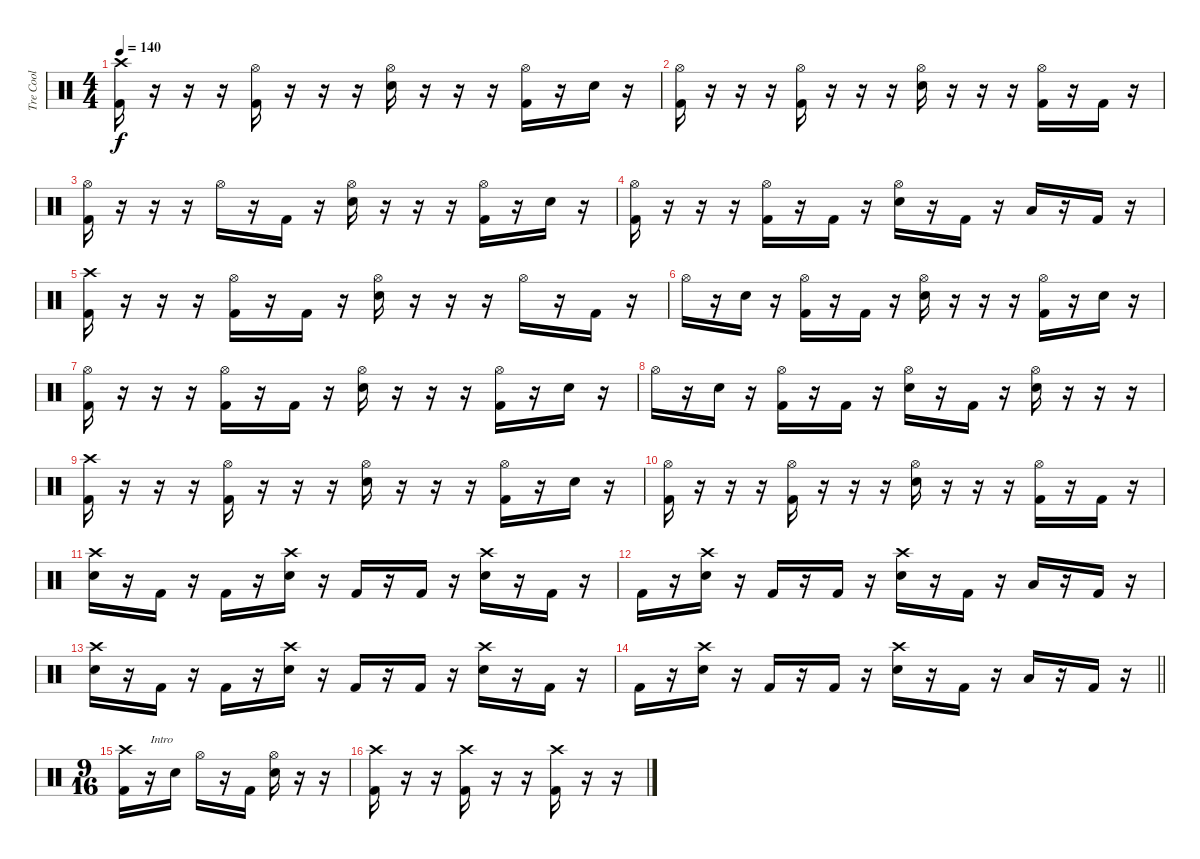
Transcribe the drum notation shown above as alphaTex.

\track ("Tre Cool" "Tre Cool") {instrument percussion}
\staff {score}
\articulation defaults
\ts (4 4)
\tempo 140
\clef neutral
\ks c
("Crash high (hit)" "Kick (hit) 2").16{dy f} r.16 r.16 r.16 ("Hi-Hat (open)" "Kick (hit) 2").16 r.16 r.16 r.16 ("Hi-Hat (open)" "Snare (hit) 2").16 r.16 r.16 r.16 ("Hi-Hat (open)" "Kick (hit) 2").16 r.16 "Snare (hit) 2".16 r.16 |
("Hi-Hat (open)" "Kick (hit) 2").16 r.16 r.16 r.16 ("Hi-Hat (open)" "Kick (hit) 2").16 r.16 r.16 r.16 ("Hi-Hat (open)" "Snare (hit) 2").16 r.16 r.16 r.16 ("Hi-Hat (open)" "Kick (hit) 2").16 r.16 "Kick (hit) 2".16 r.16 |
("Hi-Hat (open)" "Kick (hit) 2").16 r.16 r.16 r.16 "Hi-Hat (open)".16 r.16 "Kick (hit) 2".16 r.16 ("Hi-Hat (open)" "Snare (hit) 2").16 r.16 r.16 r.16 ("Hi-Hat (open)" "Kick (hit) 2").16 r.16 "Snare (hit) 2".16 r.16 |
("Hi-Hat (open)" "Kick (hit) 2").16 r.16 r.16 r.16 ("Hi-Hat (open)" "Kick (hit) 2").16 r.16 "Kick (hit) 2".16 r.16 ("Hi-Hat (open)" "Snare (hit) 2").16 r.16 "Kick (hit) 2".16 r.16 "Low Floor Tom (hit)".16 r.16 "Kick (hit) 2".16 r.16 |
("Crash high (hit)" "Kick (hit) 2").16 r.16 r.16 r.16 ("Hi-Hat (open)" "Kick (hit) 2").16 r.16 "Kick (hit) 2".16 r.16 ("Hi-Hat (open)" "Snare (hit) 2").16 r.16 r.16 r.16 "Hi-Hat (open)".16 r.16 "Kick (hit) 2".16 r.16 |
"Hi-Hat (open)".16 r.16 "Snare (hit) 2".16 r.16 ("Hi-Hat (open)" "Kick (hit) 2").16 r.16 "Kick (hit) 2".16 r.16 ("Hi-Hat (open)" "Snare (hit) 2").16 r.16 r.16 r.16 ("Hi-Hat (open)" "Kick (hit) 2").16 r.16 "Snare (hit) 2".16 r.16 |
("Hi-Hat (open)" "Kick (hit) 2").16 r.16 r.16 r.16 ("Hi-Hat (open)" "Kick (hit) 2").16 r.16 "Kick (hit) 2".16 r.16 ("Hi-Hat (open)" "Snare (hit) 2").16 r.16 r.16 r.16 ("Hi-Hat (open)" "Kick (hit) 2").16 r.16 "Snare (hit) 2".16 r.16 |
"Hi-Hat (open)".16 r.16 "Snare (hit) 2".16 r.16 ("Hi-Hat (open)" "Kick (hit) 2").16 r.16 "Kick (hit) 2".16 r.16 ("Hi-Hat (open)" "Snare (hit) 2").16 r.16 "Kick (hit) 2".16 r.16 ("Hi-Hat (open)" "Snare (hit) 2").16 r.16 r.16 r.16 |
("Crash high (hit)" "Kick (hit) 2").16 r.16 r.16 r.16 ("Hi-Hat (open)" "Kick (hit) 2").16 r.16 r.16 r.16 ("Hi-Hat (open)" "Snare (hit) 2").16 r.16 r.16 r.16 ("Hi-Hat (open)" "Kick (hit) 2").16 r.16 "Snare (hit) 2".16 r.16 |
("Hi-Hat (open)" "Kick (hit) 2").16 r.16 r.16 r.16 ("Hi-Hat (open)" "Kick (hit) 2").16 r.16 r.16 r.16 ("Hi-Hat (open)" "Snare (hit) 2").16 r.16 r.16 r.16 ("Hi-Hat (open)" "Kick (hit) 2").16 r.16 "Kick (hit) 2".16 r.16 |
("Crash high (hit)" "Snare (hit) 2").16 r.16 "Kick (hit) 2".16 r.16 "Kick (hit) 2".16 r.16 ("Crash high (hit)" "Snare (hit) 2").16 r.16 "Kick (hit) 2".16 r.16 "Kick (hit) 2".16 r.16 ("Crash high (hit)" "Snare (hit) 2").16 r.16 "Kick (hit) 2".16 r.16 |
"Kick (hit) 2".16 r.16 ("Crash high (hit)" "Snare (hit) 2").16 r.16 "Kick (hit) 2".16 r.16 "Kick (hit) 2".16 r.16 ("Crash high (hit)" "Snare (hit) 2").16 r.16 "Kick (hit) 2".16 r.16 "Low Floor Tom (hit)".16 r.16 "Kick (hit) 2".16 r.16 |
("Crash high (hit)" "Snare (hit) 2").16 r.16 "Kick (hit) 2".16 r.16 "Kick (hit) 2".16 r.16 ("Crash high (hit)" "Snare (hit) 2").16 r.16 "Kick (hit) 2".16 r.16 "Kick (hit) 2".16 r.16 ("Crash high (hit)" "Snare (hit) 2").16 r.16 "Kick (hit) 2".16 r.16 |
\barLineRight lightlight "Kick (hit) 2".16
r.16 ("Crash high (hit)" "Snare (hit) 2").16 r.16 "Kick (hit) 2".16 r.16 "Kick (hit) 2".16 r.16 ("Crash high (hit)" "Snare (hit) 2").16 r.16 "Kick (hit) 2".16 r.16 "Low Floor Tom (hit)".16 r.16 "Kick (hit) 2".16 r.16 |
\ts (9 16)
("Crash high (hit)" "Kick (hit) 2").16 r.16{txt "Intro"} "Snare (hit) 2".16 "Hi-Hat (open)".16 r.16 "Kick (hit) 2".16 ("Hi-Hat (open)" "Snare (hit) 2").16 r.16 r.16 |
("Crash high (hit)" "Kick (hit) 2").16 r.16 r.16 ("Crash high (hit)" "Kick (hit) 2").16 r.16 r.16 ("Crash high (hit)" "Kick (hit) 2").16 r.16 r.16
